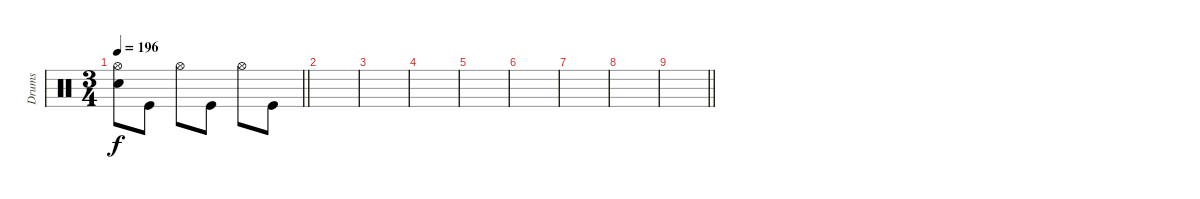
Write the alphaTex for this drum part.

\track ("Drums" "Drums") {instrument percussion}
\staff
\articulation defaults
\ts (3 4)
\tempo 196
\clef neutral
\barLineRight lightlight
\ks c
("Hi-Hat (open)" "Electric Snare (hit)").8{dy f} "Kick (hit)".8 "Hi-Hat (open)".8 "Kick (hit)".8 "Hi-Hat (open)".8 "Kick (hit)".8 |
|
|
|
|
|
|
|
\barLineRight lightlight
